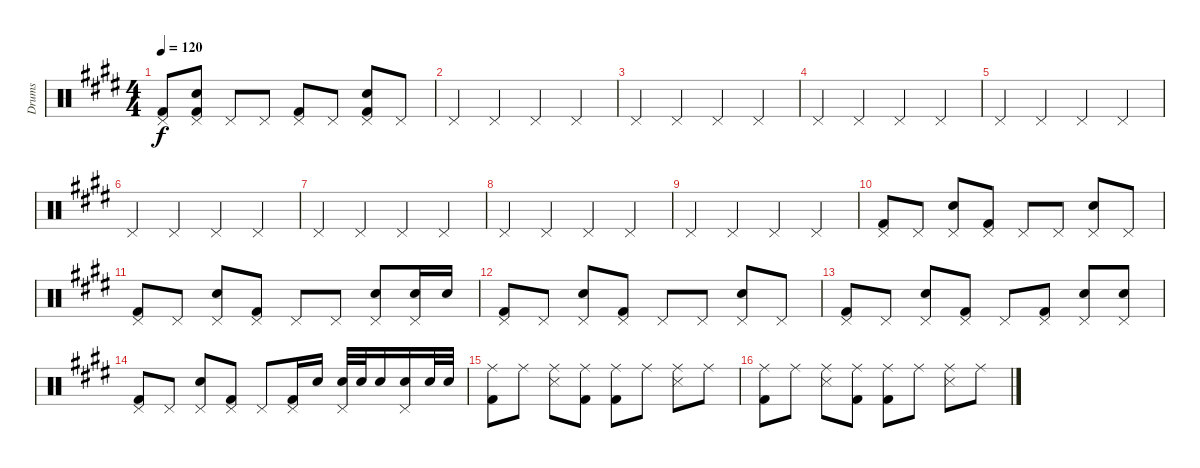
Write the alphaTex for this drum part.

\track ("Drums" "Drums") {instrument percussion}
\staff {score}
\articulation defaults
\ts (4 4)
\tempo 120
\clef neutral
\ks e
("Pedal Hi-Hat (hit)" "Kick (hit) 2").8{dy f} ("Pedal Hi-Hat (hit)" "Snare (hit) 2" "Kick (hit) 2").8 "Pedal Hi-Hat (hit)".8 "Pedal Hi-Hat (hit)".8 ("Pedal Hi-Hat (hit)" "Kick (hit) 2").8 "Pedal Hi-Hat (hit)".8 ("Pedal Hi-Hat (hit)" "Snare (hit) 2" "Kick (hit) 2").8 "Pedal Hi-Hat (hit)".8 |
"Pedal Hi-Hat (hit)".4 "Pedal Hi-Hat (hit)".4 "Pedal Hi-Hat (hit)".4 "Pedal Hi-Hat (hit)".4 |
"Pedal Hi-Hat (hit)".4 "Pedal Hi-Hat (hit)".4 "Pedal Hi-Hat (hit)".4 "Pedal Hi-Hat (hit)".4 |
"Pedal Hi-Hat (hit)".4 "Pedal Hi-Hat (hit)".4 "Pedal Hi-Hat (hit)".4 "Pedal Hi-Hat (hit)".4 |
"Pedal Hi-Hat (hit)".4 "Pedal Hi-Hat (hit)".4 "Pedal Hi-Hat (hit)".4 "Pedal Hi-Hat (hit)".4 |
"Pedal Hi-Hat (hit)".4 "Pedal Hi-Hat (hit)".4 "Pedal Hi-Hat (hit)".4 "Pedal Hi-Hat (hit)".4 |
"Pedal Hi-Hat (hit)".4 "Pedal Hi-Hat (hit)".4 "Pedal Hi-Hat (hit)".4 "Pedal Hi-Hat (hit)".4 |
"Pedal Hi-Hat (hit)".4 "Pedal Hi-Hat (hit)".4 "Pedal Hi-Hat (hit)".4 "Pedal Hi-Hat (hit)".4 |
"Pedal Hi-Hat (hit)".4 "Pedal Hi-Hat (hit)".4 "Pedal Hi-Hat (hit)".4 "Pedal Hi-Hat (hit)".4 |
("Pedal Hi-Hat (hit)" "Kick (hit) 2").8 "Pedal Hi-Hat (hit)".8 ("Pedal Hi-Hat (hit)" "Snare (hit) 2").8 ("Pedal Hi-Hat (hit)" "Kick (hit) 2").8 "Pedal Hi-Hat (hit)".8 "Pedal Hi-Hat (hit)".8 ("Pedal Hi-Hat (hit)" "Snare (hit) 2").8 "Pedal Hi-Hat (hit)".8 |
("Pedal Hi-Hat (hit)" "Kick (hit) 2").8 "Pedal Hi-Hat (hit)".8 ("Pedal Hi-Hat (hit)" "Snare (hit) 2").8 ("Pedal Hi-Hat (hit)" "Kick (hit) 2").8 "Pedal Hi-Hat (hit)".8 "Pedal Hi-Hat (hit)".8 ("Pedal Hi-Hat (hit)" "Snare (hit) 2").8 ("Pedal Hi-Hat (hit)" "Snare (hit) 2").16 "Snare (hit) 2".16 |
("Pedal Hi-Hat (hit)" "Kick (hit) 2").8 "Pedal Hi-Hat (hit)".8 ("Pedal Hi-Hat (hit)" "Snare (hit) 2").8 ("Pedal Hi-Hat (hit)" "Kick (hit) 2").8 "Pedal Hi-Hat (hit)".8 "Pedal Hi-Hat (hit)".8 ("Pedal Hi-Hat (hit)" "Snare (hit) 2").8 "Pedal Hi-Hat (hit)".8 |
("Pedal Hi-Hat (hit)" "Kick (hit) 2").8 "Pedal Hi-Hat (hit)".8 ("Pedal Hi-Hat (hit)" "Snare (hit) 2").8 ("Pedal Hi-Hat (hit)" "Kick (hit) 2").8 "Pedal Hi-Hat (hit)".8 ("Pedal Hi-Hat (hit)" "Kick (hit) 2").8 ("Pedal Hi-Hat (hit)" "Snare (hit) 2").8 ("Pedal Hi-Hat (hit)" "Snare (hit) 2").8 |
("Pedal Hi-Hat (hit)" "Kick (hit) 2").8 "Pedal Hi-Hat (hit)".8 ("Pedal Hi-Hat (hit)" "Snare (hit) 2").8 ("Pedal Hi-Hat (hit)" "Kick (hit) 2").8 "Pedal Hi-Hat (hit)".8 ("Pedal Hi-Hat (hit)" "Kick (hit) 2").16 "Electric Snare (hit)".16 ("Pedal Hi-Hat (hit)" "Electric Snare (hit)").32 "Electric Snare (hit)".32 "Electric Snare (hit)".16 ("Pedal Hi-Hat (hit)" "Electric Snare (hit)").16 "Electric Snare (hit)".32 "Electric Snare (hit)".32 |
("Ride (middle)" "Kick (hit) 2").8 "Ride (middle)".8 ("Ride (middle)" "Snare (side stick) 3").8 ("Ride (middle)" "Kick (hit) 2").8 ("Ride (middle)" "Kick (hit) 2").8 "Ride (middle)".8 ("Ride (middle)" "Snare (side stick) 3").8 "Ride (middle)".8 |
("Ride (middle)" "Kick (hit) 2").8 "Ride (middle)".8 ("Ride (middle)" "Snare (side stick) 3").8 ("Ride (middle)" "Kick (hit) 2").8 ("Ride (middle)" "Kick (hit) 2").8 "Ride (middle)".8 ("Ride (middle)" "Snare (side stick) 3").8 "Ride (middle)".8
